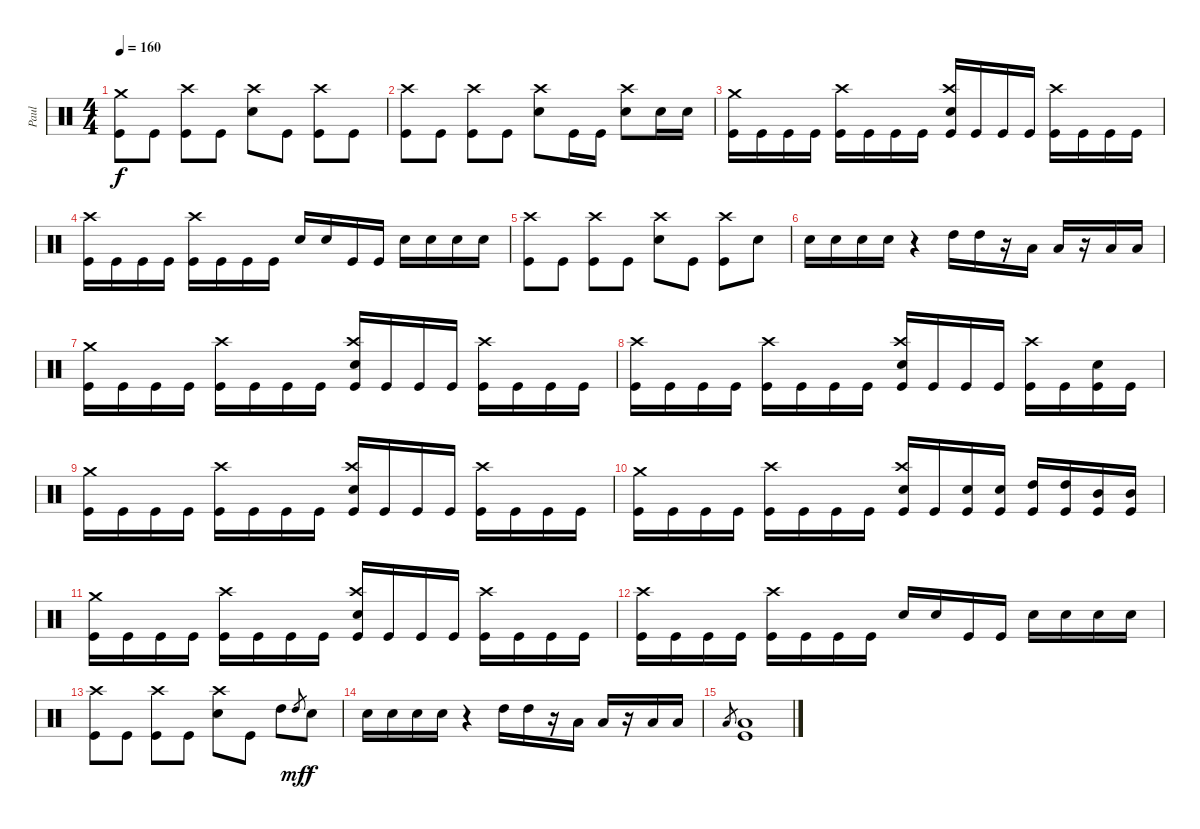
\track ("Paul" "Paul") {instrument percussion}
\staff {score}
\articulation defaults
\ts (4 4)
\tempo 160
\clef neutral
\ks c
("Crash medium (hit)" "Kick (hit)").8{dy f} "Kick (hit)".8 ("Crash high (hit)" "Kick (hit)").8 "Kick (hit)".8 ("Crash high (hit)" "Electric Snare (hit)").8 "Kick (hit)".8 ("Crash high (hit)" "Kick (hit)").8 "Kick (hit)".8 |
("Crash high (hit)" "Kick (hit)").8 "Kick (hit)".8 ("Crash high (hit)" "Kick (hit)").8 "Kick (hit)".8 ("Crash high (hit)" "Electric Snare (hit)").8 "Kick (hit)".16 "Kick (hit)".16 ("Crash high (hit)" "Electric Snare (hit)").8 "Electric Snare (hit)".16 "Electric Snare (hit)".16 |
("Crash medium (hit)" "Kick (hit)").16 "Kick (hit)".16 "Kick (hit)".16 "Kick (hit)".16 ("Crash high (hit)" "Kick (hit)").16 "Kick (hit)".16 "Kick (hit)".16 "Kick (hit)".16 ("Crash high (hit)" "Electric Snare (hit)" "Kick (hit)").16 "Kick (hit)".16 "Kick (hit)".16 "Kick (hit)".16 ("Crash high (hit)" "Kick (hit)").16 "Kick (hit)".16 "Kick (hit)".16 "Kick (hit)".16 |
("Crash high (hit)" "Kick (hit)").16 "Kick (hit)".16 "Kick (hit)".16 "Kick (hit)".16 ("Crash high (hit)" "Kick (hit)").16 "Kick (hit)".16 "Kick (hit)".16 "Kick (hit)".16 "Electric Snare (hit)".16 "Electric Snare (hit)".16 "Kick (hit)".16 "Kick (hit)".16 "Electric Snare (hit)".16 "Electric Snare (hit)".16 "Electric Snare (hit)".16 "Electric Snare (hit)".16 |
("Crash high (hit)" "Kick (hit)").8 "Kick (hit)".8 ("Crash high (hit)" "Kick (hit)").8 "Kick (hit)".8 ("Crash high (hit)" "Electric Snare (hit)").8 "Kick (hit)".8 ("Crash high (hit)" "Kick (hit)").8 "Electric Snare (hit)".8 |
"Electric Snare (hit)".16 "Electric Snare (hit)".16 "Electric Snare (hit)".16 "Electric Snare (hit)".16 r.4 "High Tom (hit)".16 "High Tom (hit)".16 r.16 "Low Floor Tom (hit)".16 "Low Floor Tom (hit)".16 r.16 "Low Floor Tom (hit)".16 "Low Floor Tom (hit)".16 |
("Crash medium (hit)" "Kick (hit)").16 "Kick (hit)".16 "Kick (hit)".16 "Kick (hit)".16 ("Crash high (hit)" "Kick (hit)").16 "Kick (hit)".16 "Kick (hit)".16 "Kick (hit)".16 ("Crash high (hit)" "Electric Snare (hit)" "Kick (hit)").16 "Kick (hit)".16 "Kick (hit)".16 "Kick (hit)".16 ("Crash high (hit)" "Kick (hit)").16 "Kick (hit)".16 "Kick (hit)".16 "Kick (hit)".16 |
("Crash high (hit)" "Kick (hit)").16 "Kick (hit)".16 "Kick (hit)".16 "Kick (hit)".16 ("Crash high (hit)" "Kick (hit)").16 "Kick (hit)".16 "Kick (hit)".16 "Kick (hit)".16 ("Crash high (hit)" "Electric Snare (hit)" "Kick (hit)").16 "Kick (hit)".16 "Kick (hit)".16 "Kick (hit)".16 ("Crash high (hit)" "Kick (hit)").16 "Kick (hit)".16 ("Electric Snare (hit)" "Kick (hit)").16 "Kick (hit)".16 |
("Crash medium (hit)" "Kick (hit)").16 "Kick (hit)".16 "Kick (hit)".16 "Kick (hit)".16 ("Crash high (hit)" "Kick (hit)").16 "Kick (hit)".16 "Kick (hit)".16 "Kick (hit)".16 ("Crash high (hit)" "Electric Snare (hit)" "Kick (hit)").16 "Kick (hit)".16 "Kick (hit)".16 "Kick (hit)".16 ("Crash high (hit)" "Kick (hit)").16 "Kick (hit)".16 "Kick (hit)".16 "Kick (hit)".16 |
("Crash medium (hit)" "Kick (hit)").16 "Kick (hit)".16 "Kick (hit)".16 "Kick (hit)".16 ("Crash high (hit)" "Kick (hit)").16 "Kick (hit)".16 "Kick (hit)".16 "Kick (hit)".16 ("Crash high (hit)" "Electric Snare (hit)" "Kick (hit)").16 "Kick (hit)".16 ("Electric Snare (hit)" "Kick (hit)").16 ("Electric Snare (hit)" "Kick (hit)").16 ("High Tom (hit)" "Kick (hit)").16 ("High Tom (hit)" "Kick (hit)").16 ("Mid Tom (hit)" "Kick (hit)").16 ("Mid Tom (hit)" "Kick (hit)").16 |
("Crash medium (hit)" "Kick (hit)").16 "Kick (hit)".16 "Kick (hit)".16 "Kick (hit)".16 ("Crash high (hit)" "Kick (hit)").16 "Kick (hit)".16 "Kick (hit)".16 "Kick (hit)".16 ("Crash high (hit)" "Electric Snare (hit)" "Kick (hit)").16 "Kick (hit)".16 "Kick (hit)".16 "Kick (hit)".16 ("Crash high (hit)" "Kick (hit)").16 "Kick (hit)".16 "Kick (hit)".16 "Kick (hit)".16 |
("Crash high (hit)" "Kick (hit)").16 "Kick (hit)".16 "Kick (hit)".16 "Kick (hit)".16 ("Crash high (hit)" "Kick (hit)").16 "Kick (hit)".16 "Kick (hit)".16 "Kick (hit)".16 "Electric Snare (hit)".16 "Electric Snare (hit)".16 "Kick (hit)".16 "Kick (hit)".16 "Electric Snare (hit)".16 "Electric Snare (hit)".16 "Electric Snare (hit)".16 "Electric Snare (hit)".16 |
("Crash high (hit)" "Kick (hit)").8 "Kick (hit)".8 ("Crash high (hit)" "Kick (hit)").8 "Kick (hit)".8 ("Crash high (hit)" "Electric Snare (hit)").8 "Kick (hit)".8 "High Tom (hit)".8 "High Tom (hit)".8{gr dy mf} "Electric Snare (hit)".8{dy f} |
"Electric Snare (hit)".16 "Electric Snare (hit)".16 "Electric Snare (hit)".16 "Electric Snare (hit)".16 r.4 "High Tom (hit)".16 "High Tom (hit)".16 r.16 "Low Floor Tom (hit)".16 "Low Floor Tom (hit)".16 r.16 "Low Floor Tom (hit)".16 "Low Floor Tom (hit)".16 |
"Low Floor Tom (hit)".8{gr} ("Low Floor Tom (hit)" "Kick (hit)").1
